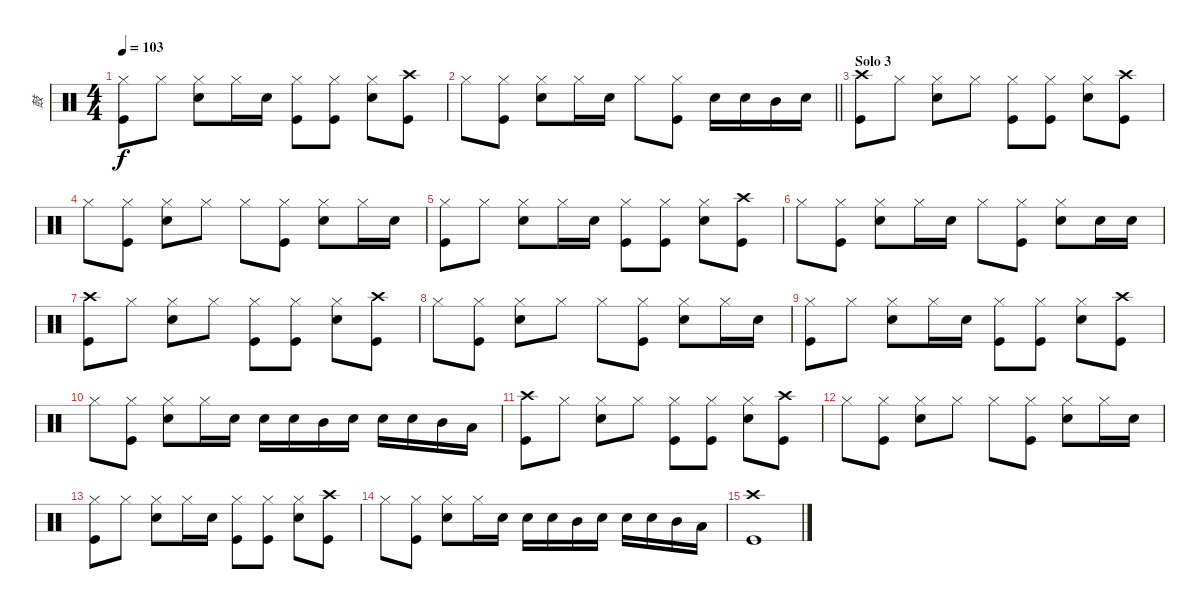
\track ("鼓" "鼓") {instrument percussion}
\staff {score}
\articulation defaults
\ts (4 4)
\tempo 103
\clef neutral
\ks c
("Hi-Hat (closed)" "Kick (hit)").8{dy f} "Hi-Hat (closed)".8 ("Hi-Hat (closed)" "Snare (hit) 2").8 "Hi-Hat (closed)".16 "Snare (hit) 2".16 ("Hi-Hat (closed)" "Kick (hit)").8 ("Hi-Hat (closed)" "Kick (hit)").8 ("Hi-Hat (closed)" "Snare (hit) 2").8 ("Crash high (hit)" "Kick (hit)").8 |
\barLineRight lightlight "Hi-Hat (closed)".8
("Hi-Hat (closed)" "Kick (hit)").8 ("Hi-Hat (closed)" "Snare (hit) 2").8 "Hi-Hat (closed)".16 "Snare (hit) 2".16 "Hi-Hat (closed)".8 ("Hi-Hat (closed)" "Kick (hit)").8 "Snare (hit) 2".16 "Snare (hit) 2".16 "Mid Tom (hit)".16 "Snare (hit) 2".16 |
\section ("" "Solo 3")
("Crash high (hit)" "Kick (hit)").8 "Hi-Hat (closed)".8 ("Hi-Hat (closed)" "Snare (hit) 2").8 "Hi-Hat (closed)".8 ("Hi-Hat (closed)" "Kick (hit)").8 ("Hi-Hat (closed)" "Kick (hit)").8 ("Hi-Hat (closed)" "Snare (hit) 2").8 ("Crash high (hit)" "Kick (hit)").8 |
"Hi-Hat (closed)".8 ("Hi-Hat (closed)" "Kick (hit)").8 ("Hi-Hat (closed)" "Snare (hit) 2").8 "Hi-Hat (closed)".8 "Hi-Hat (closed)".8 ("Hi-Hat (closed)" "Kick (hit)").8 ("Hi-Hat (closed)" "Snare (hit) 2").8 "Hi-Hat (closed)".16 "Snare (hit) 2".16 |
("Hi-Hat (closed)" "Kick (hit)").8 "Hi-Hat (closed)".8 ("Hi-Hat (closed)" "Snare (hit) 2").8 "Hi-Hat (closed)".16 "Snare (hit) 2".16 ("Hi-Hat (closed)" "Kick (hit)").8 ("Hi-Hat (closed)" "Kick (hit)").8 ("Hi-Hat (closed)" "Snare (hit) 2").8 ("Crash high (hit)" "Kick (hit)").8 |
"Hi-Hat (closed)".8 ("Hi-Hat (closed)" "Kick (hit)").8 ("Hi-Hat (closed)" "Snare (hit) 2").8 "Hi-Hat (closed)".16 "Snare (hit) 2".16 "Hi-Hat (closed)".8 ("Hi-Hat (closed)" "Kick (hit)").8 ("Hi-Hat (closed)" "Snare (hit) 2").8 "Snare (hit) 2".16 "Snare (hit) 2".16 |
("Crash high (hit)" "Kick (hit)").8 "Hi-Hat (closed)".8 ("Hi-Hat (closed)" "Snare (hit) 2").8 "Hi-Hat (closed)".8 ("Hi-Hat (closed)" "Kick (hit)").8 ("Hi-Hat (closed)" "Kick (hit)").8 ("Hi-Hat (closed)" "Snare (hit) 2").8 ("Crash high (hit)" "Kick (hit)").8 |
"Hi-Hat (closed)".8 ("Hi-Hat (closed)" "Kick (hit)").8 ("Hi-Hat (closed)" "Snare (hit) 2").8 "Hi-Hat (closed)".8 "Hi-Hat (closed)".8 ("Hi-Hat (closed)" "Kick (hit)").8 ("Hi-Hat (closed)" "Snare (hit) 2").8 "Hi-Hat (closed)".16 "Snare (hit) 2".16 |
("Hi-Hat (closed)" "Kick (hit)").8 "Hi-Hat (closed)".8 ("Hi-Hat (closed)" "Snare (hit) 2").8 "Hi-Hat (closed)".16 "Snare (hit) 2".16 ("Hi-Hat (closed)" "Kick (hit)").8 ("Hi-Hat (closed)" "Kick (hit)").8 ("Hi-Hat (closed)" "Snare (hit) 2").8 ("Crash high (hit)" "Kick (hit)").8 |
"Hi-Hat (closed)".8 ("Hi-Hat (closed)" "Kick (hit)").8 ("Hi-Hat (closed)" "Snare (hit) 2").8 "Hi-Hat (closed)".16 "Snare (hit) 2".16 "Snare (hit) 2".16 "Snare (hit) 2".16 "Mid Tom (hit)".16 "Snare (hit) 2".16 "Snare (hit) 2".16 "Snare (hit) 2".16 "Mid Tom (hit)".16 "Low Tom (hit)".16 |
("Crash high (hit)" "Kick (hit)").8 "Hi-Hat (closed)".8 ("Hi-Hat (closed)" "Snare (hit) 2").8 "Hi-Hat (closed)".8 ("Hi-Hat (closed)" "Kick (hit)").8 ("Hi-Hat (closed)" "Kick (hit)").8 ("Hi-Hat (closed)" "Snare (hit) 2").8 ("Crash high (hit)" "Kick (hit)").8 |
"Hi-Hat (closed)".8 ("Hi-Hat (closed)" "Kick (hit)").8 ("Hi-Hat (closed)" "Snare (hit) 2").8 "Hi-Hat (closed)".8 "Hi-Hat (closed)".8 ("Hi-Hat (closed)" "Kick (hit)").8 ("Hi-Hat (closed)" "Snare (hit) 2").8 "Hi-Hat (closed)".16 "Snare (hit) 2".16 |
("Hi-Hat (closed)" "Kick (hit)").8 "Hi-Hat (closed)".8 ("Hi-Hat (closed)" "Snare (hit) 2").8 "Hi-Hat (closed)".16 "Snare (hit) 2".16 ("Hi-Hat (closed)" "Kick (hit)").8 ("Hi-Hat (closed)" "Kick (hit)").8 ("Hi-Hat (closed)" "Snare (hit) 2").8 ("Crash high (hit)" "Kick (hit)").8 |
"Hi-Hat (closed)".8 ("Hi-Hat (closed)" "Kick (hit)").8 ("Hi-Hat (closed)" "Snare (hit) 2").8 "Hi-Hat (closed)".16 "Snare (hit) 2".16 "Snare (hit) 2".16 "Snare (hit) 2".16 "Mid Tom (hit)".16 "Snare (hit) 2".16 "Snare (hit) 2".16 "Snare (hit) 2".16 "Mid Tom (hit)".16 "Low Tom (hit)".16 |
("Crash high (hit)" "Kick (hit)").1
